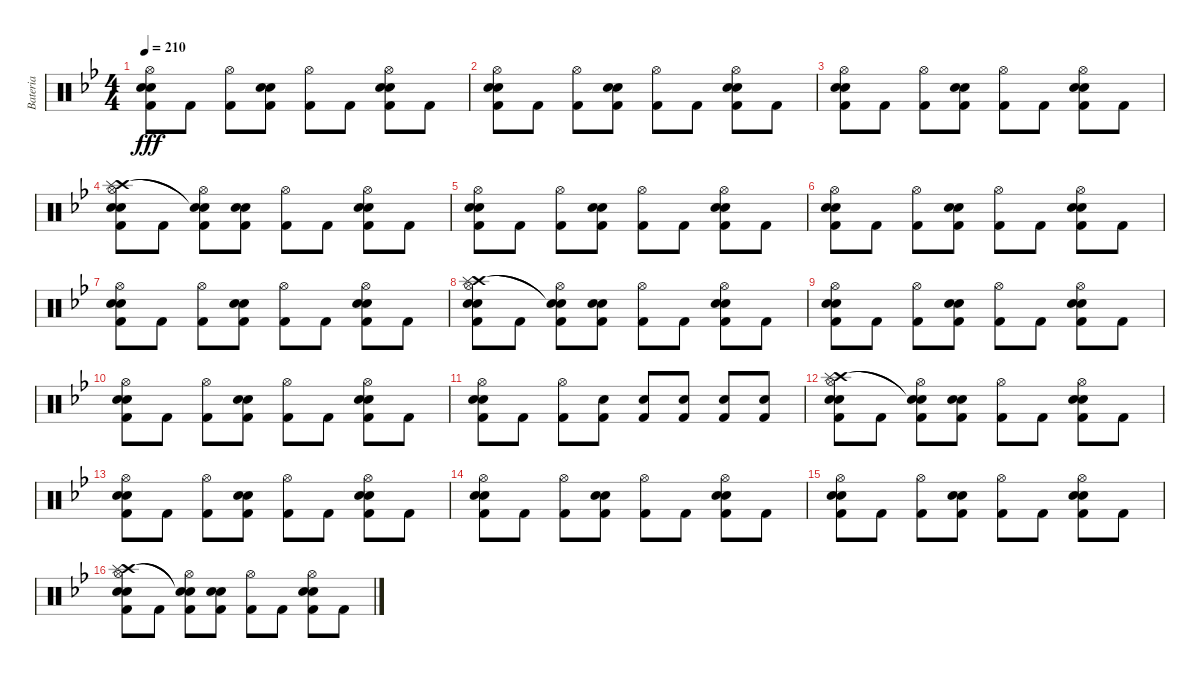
\track ("Bateria" "Bateria") {instrument percussion}
\staff {score}
\articulation defaults
\ts (4 4)
\tempo 210
\clef neutral
\ks gminor
("Hi-Hat (open)" "Snare (hit) 2" "Kick (hit) 2" "Electric Snare (hit)").8{dy fff} "Kick (hit) 2".8 ("Hi-Hat (open)" "Kick (hit) 2").8 ("Snare (hit) 2" "Kick (hit) 2" "Electric Snare (hit)").8 ("Hi-Hat (open)" "Kick (hit) 2").8 "Kick (hit) 2".8 ("Hi-Hat (open)" "Snare (hit) 2" "Kick (hit) 2" "Electric Snare (hit)").8 "Kick (hit) 2".8 |
("Hi-Hat (open)" "Snare (hit) 2" "Kick (hit) 2" "Electric Snare (hit)").8 "Kick (hit) 2".8 ("Hi-Hat (open)" "Kick (hit) 2").8 ("Snare (hit) 2" "Kick (hit) 2" "Electric Snare (hit)").8 ("Hi-Hat (open)" "Kick (hit) 2").8 "Kick (hit) 2".8 ("Hi-Hat (open)" "Snare (hit) 2" "Kick (hit) 2" "Electric Snare (hit)").8 "Kick (hit) 2".8 |
("Hi-Hat (open)" "Snare (hit) 2" "Kick (hit) 2" "Electric Snare (hit)").8 "Kick (hit) 2".8 ("Hi-Hat (open)" "Kick (hit) 2").8 ("Snare (hit) 2" "Kick (hit) 2" "Electric Snare (hit)").8 ("Hi-Hat (open)" "Kick (hit) 2").8 "Kick (hit) 2".8 ("Hi-Hat (open)" "Snare (hit) 2" "Kick (hit) 2" "Electric Snare (hit)").8 "Kick (hit) 2".8 |
("Hi-Hat (open)" "Crash high (hit)" "Splash (hit)" "Snare (hit) 2" "Kick (hit) 2" "Electric Snare (hit)").8 "Kick (hit) 2".8 ("Hi-Hat (open)" "Snare (hit)"{t} "Snare (hit)"{t} "Kick (hit) 2").8 ("Snare (hit) 2" "Kick (hit) 2" "Electric Snare (hit)").8 ("Hi-Hat (open)" "Kick (hit) 2").8 "Kick (hit) 2".8 ("Hi-Hat (open)" "Snare (hit) 2" "Kick (hit) 2" "Electric Snare (hit)").8 "Kick (hit) 2".8 |
("Hi-Hat (open)" "Snare (hit) 2" "Kick (hit) 2" "Electric Snare (hit)").8 "Kick (hit) 2".8 ("Hi-Hat (open)" "Kick (hit) 2").8 ("Snare (hit) 2" "Kick (hit) 2" "Electric Snare (hit)").8 ("Hi-Hat (open)" "Kick (hit) 2").8 "Kick (hit) 2".8 ("Hi-Hat (open)" "Snare (hit) 2" "Kick (hit) 2" "Electric Snare (hit)").8 "Kick (hit) 2".8 |
("Hi-Hat (open)" "Snare (hit) 2" "Kick (hit) 2" "Electric Snare (hit)").8 "Kick (hit) 2".8 ("Hi-Hat (open)" "Kick (hit) 2").8 ("Snare (hit) 2" "Kick (hit) 2" "Electric Snare (hit)").8 ("Hi-Hat (open)" "Kick (hit) 2").8 "Kick (hit) 2".8 ("Hi-Hat (open)" "Snare (hit) 2" "Kick (hit) 2" "Electric Snare (hit)").8 "Kick (hit) 2".8 |
("Hi-Hat (open)" "Snare (hit) 2" "Kick (hit) 2" "Electric Snare (hit)").8 "Kick (hit) 2".8 ("Hi-Hat (open)" "Kick (hit) 2").8 ("Snare (hit) 2" "Kick (hit) 2" "Electric Snare (hit)").8 ("Hi-Hat (open)" "Kick (hit) 2").8 "Kick (hit) 2".8 ("Hi-Hat (open)" "Snare (hit) 2" "Kick (hit) 2" "Electric Snare (hit)").8 "Kick (hit) 2".8 |
("Hi-Hat (open)" "Crash high (hit)" "Splash (hit)" "Snare (hit) 2" "Kick (hit) 2" "Electric Snare (hit)").8 "Kick (hit) 2".8 ("Hi-Hat (open)" "Snare (hit)"{t} "Snare (hit)"{t} "Kick (hit) 2").8 ("Snare (hit) 2" "Kick (hit) 2" "Electric Snare (hit)").8 ("Hi-Hat (open)" "Kick (hit) 2").8 "Kick (hit) 2".8 ("Hi-Hat (open)" "Snare (hit) 2" "Kick (hit) 2" "Electric Snare (hit)").8 "Kick (hit) 2".8 |
("Hi-Hat (open)" "Snare (hit) 2" "Kick (hit) 2" "Electric Snare (hit)").8 "Kick (hit) 2".8 ("Hi-Hat (open)" "Kick (hit) 2").8 ("Snare (hit) 2" "Kick (hit) 2" "Electric Snare (hit)").8 ("Hi-Hat (open)" "Kick (hit) 2").8 "Kick (hit) 2".8 ("Hi-Hat (open)" "Snare (hit) 2" "Kick (hit) 2" "Electric Snare (hit)").8 "Kick (hit) 2".8 |
("Hi-Hat (open)" "Snare (hit) 2" "Kick (hit) 2" "Electric Snare (hit)").8 "Kick (hit) 2".8 ("Hi-Hat (open)" "Kick (hit) 2").8 ("Snare (hit) 2" "Kick (hit) 2" "Electric Snare (hit)").8 ("Hi-Hat (open)" "Kick (hit) 2").8 "Kick (hit) 2".8 ("Hi-Hat (open)" "Snare (hit) 2" "Kick (hit) 2" "Electric Snare (hit)").8 "Kick (hit) 2".8 |
("Hi-Hat (open)" "Snare (hit) 2" "Kick (hit) 2" "Electric Snare (hit)").8 "Kick (hit) 2".8 ("Hi-Hat (open)" "Kick (hit) 2").8 ("Snare (hit) 2" "Kick (hit) 2").8 ("Snare (hit) 2" "Kick (hit) 2").8 ("Snare (hit) 2" "Kick (hit) 2").8 ("Snare (hit) 2" "Kick (hit) 2").8 ("Snare (hit) 2" "Kick (hit) 2").8 |
("Hi-Hat (open)" "Crash high (hit)" "Splash (hit)" "Snare (hit) 2" "Electric Snare (hit)" "Kick (hit) 2").8 "Kick (hit) 2".8 ("Hi-Hat (open)" "Snare (hit)"{t} "Snare (hit)"{t} "Kick (hit) 2").8 ("Snare (hit) 2" "Electric Snare (hit)" "Kick (hit) 2").8 ("Hi-Hat (open)" "Kick (hit) 2").8 "Kick (hit) 2".8 ("Hi-Hat (open)" "Snare (hit) 2" "Electric Snare (hit)" "Kick (hit) 2").8 "Kick (hit) 2".8 |
("Hi-Hat (open)" "Snare (hit) 2" "Kick (hit) 2" "Electric Snare (hit)").8 "Kick (hit) 2".8 ("Hi-Hat (open)" "Kick (hit) 2").8 ("Snare (hit) 2" "Kick (hit) 2" "Electric Snare (hit)").8 ("Hi-Hat (open)" "Kick (hit) 2").8 "Kick (hit) 2".8 ("Hi-Hat (open)" "Snare (hit) 2" "Kick (hit) 2" "Electric Snare (hit)").8 "Kick (hit) 2".8 |
("Hi-Hat (open)" "Snare (hit) 2" "Kick (hit) 2" "Electric Snare (hit)").8 "Kick (hit) 2".8 ("Hi-Hat (open)" "Kick (hit) 2").8 ("Snare (hit) 2" "Kick (hit) 2" "Electric Snare (hit)").8 ("Hi-Hat (open)" "Kick (hit) 2").8 "Kick (hit) 2".8 ("Hi-Hat (open)" "Snare (hit) 2" "Kick (hit) 2" "Electric Snare (hit)").8 "Kick (hit) 2".8 |
("Hi-Hat (open)" "Snare (hit) 2" "Kick (hit) 2" "Electric Snare (hit)").8 "Kick (hit) 2".8 ("Hi-Hat (open)" "Kick (hit) 2").8 ("Snare (hit) 2" "Kick (hit) 2" "Electric Snare (hit)").8 ("Hi-Hat (open)" "Kick (hit) 2").8 "Kick (hit) 2".8 ("Hi-Hat (open)" "Snare (hit) 2" "Kick (hit) 2" "Electric Snare (hit)").8 "Kick (hit) 2".8 |
("Hi-Hat (open)" "Crash high (hit)" "Splash (hit)" "Snare (hit) 2" "Kick (hit) 2" "Electric Snare (hit)").8 "Kick (hit) 2".8 ("Hi-Hat (open)" "Snare (hit)"{t} "Snare (hit)"{t} "Kick (hit) 2").8 ("Snare (hit) 2" "Kick (hit) 2" "Electric Snare (hit)").8 ("Hi-Hat (open)" "Kick (hit) 2").8 "Kick (hit) 2".8 ("Hi-Hat (open)" "Snare (hit) 2" "Kick (hit) 2" "Electric Snare (hit)").8 "Kick (hit) 2".8
